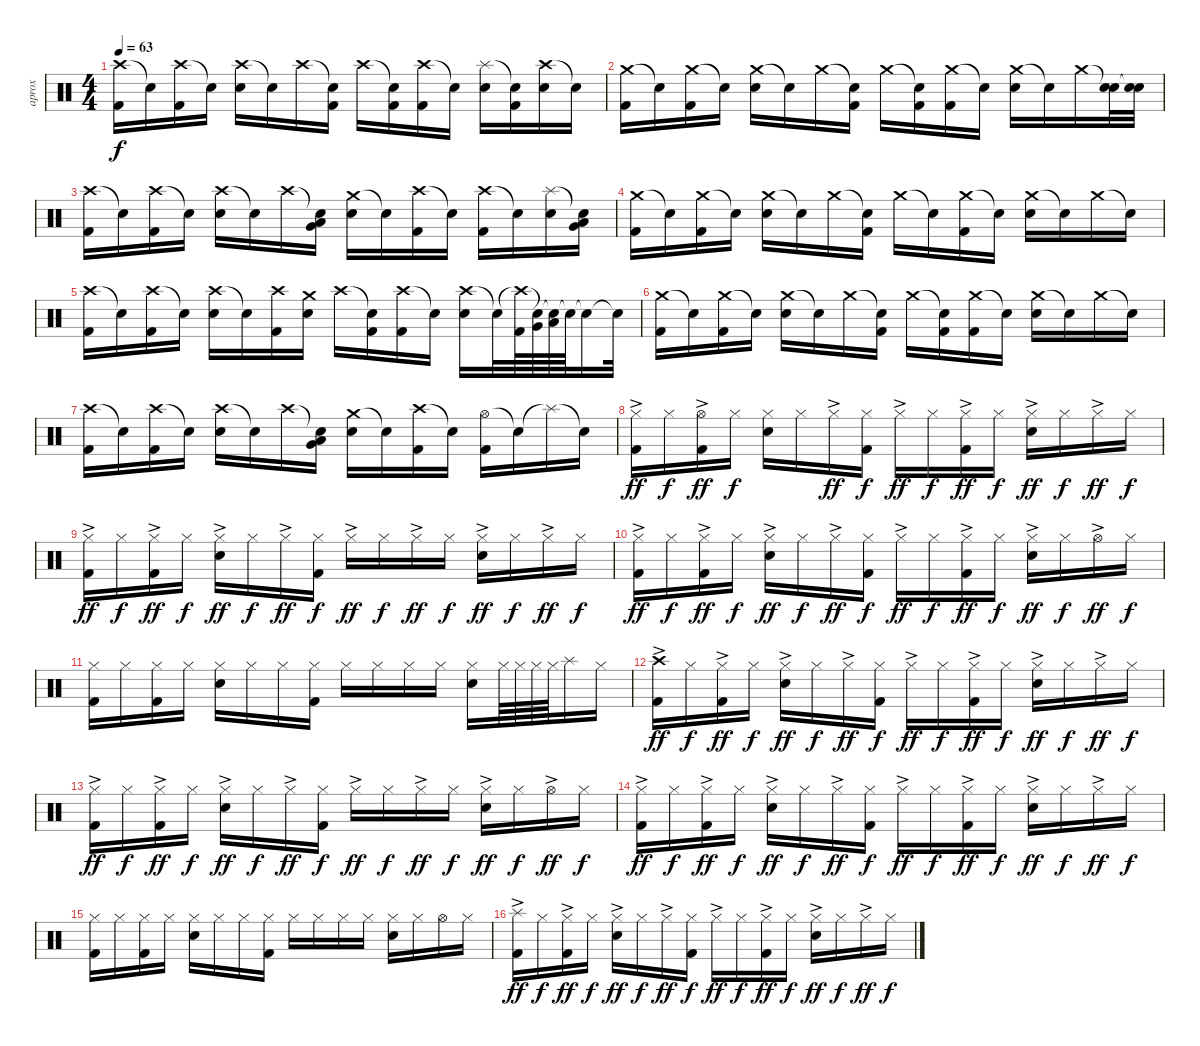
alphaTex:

\track ("aprox" "aprox") {instrument percussion}
\staff {score}
\articulation defaults
\ts (4 4)
\tempo 63
\clef neutral
\ks c
("Crash high (hit)" "Kick (hit) 2").16{dy f} "Snare (hit)"{t}.16 ("Crash high (hit)" "Kick (hit) 2").16 "Snare (hit)"{t}.16 ("Crash high (hit)" "Electric Snare (hit)").16 "Snare (hit)"{t}.16 "Crash high (hit)".16 ("Snare (hit)"{t} "Kick (hit) 2").16 "Crash high (hit)".16 ("Snare (hit)"{t} "Kick (hit) 2").16 ("Crash high (hit)" "Kick (hit) 2").16 "Snare (hit)"{t}.16 ("Splash (hit)" "Electric Snare (hit)").16 ("Snare (hit)"{t} "Kick (hit) 2").16 ("Crash high (hit)" "Electric Snare (hit)").16 "Snare (hit)"{t}.16 |
("Crash medium (hit)" "Kick (hit) 2").16 "Snare (hit)"{t}.16 ("Crash medium (hit)" "Kick (hit) 2").16 "Snare (hit)"{t}.16 ("Crash medium (hit)" "Electric Snare (hit)").16 "Snare (hit)"{t}.16 "Crash medium (hit)".16 ("Snare (hit)"{t} "Kick (hit) 2").16 "Crash medium (hit)".16 ("Snare (hit)"{t} "Kick (hit) 2").16 ("Crash medium (hit)" "Kick (hit) 2").16 "Snare (hit)"{t}.16 ("Crash medium (hit)" "Electric Snare (hit)").16 "Snare (hit)"{t}.16 "Crash medium (hit)".16 ("Snare (hit)"{t} "Electric Snare (hit)").32 ("Snare (hit)"{t} "Electric Snare (hit)").32 |
("Crash high (hit)" "Kick (hit) 2").16 "Snare (hit)"{t}.16 ("Crash high (hit)" "Kick (hit) 2").16 "Snare (hit)"{t}.16 ("Crash high (hit)" "Electric Snare (hit)").16 "Snare (hit)"{t}.16 "Crash high (hit)".16 ("Snare (hit)"{t} "Low Floor Tom (hit)" "Very Low Tom (hit)").16 ("Crash medium (hit)" "Electric Snare (hit)").16 "Snare (hit)"{t}.16 ("Crash high (hit)" "Kick (hit) 2").16 "Snare (hit)"{t}.16 ("Crash high (hit)" "Kick (hit) 2").16 "Snare (hit)"{t}.16 ("Splash (hit)" "Electric Snare (hit)").16 ("Snare (hit)"{t} "Low Floor Tom (hit)" "Very Low Tom (hit)").16 |
("Crash medium (hit)" "Kick (hit) 2").16 "Snare (hit)"{t}.16 ("Crash medium (hit)" "Kick (hit) 2").16 "Snare (hit)"{t}.16 ("Crash medium (hit)" "Electric Snare (hit)").16 "Snare (hit)"{t}.16 "Crash medium (hit)".16 ("Snare (hit)"{t} "Kick (hit) 2").16 "Crash medium (hit)".16 "Snare (hit)"{t}.16 ("Crash medium (hit)" "Kick (hit) 2").16 "Snare (hit)"{t}.16 ("Crash medium (hit)" "Electric Snare (hit)").16 "Snare (hit)"{t}.16 "Crash medium (hit)".16 "Snare (hit)"{t}.16 |
("Crash high (hit)" "Kick (hit) 2").16 "Snare (hit)"{t}.16 ("Crash high (hit)" "Kick (hit) 2").16 "Snare (hit)"{t}.16 ("Crash high (hit)" "Electric Snare (hit)").16 "Snare (hit)"{t}.16 ("Crash high (hit)" "Kick (hit) 2").16 ("Crash medium (hit)" "Electric Snare (hit)").16 "Crash high (hit)".16 ("Snare (hit)"{t} "Kick (hit) 2").16 ("Crash high (hit)" "Kick (hit) 2").16 "Snare (hit)"{t}.16 ("Crash high (hit)" "Electric Snare (hit)").16 "Snare (hit)"{t}.32 ("Crash high (hit)"{t} "Kick (hit) 2").64 ("Snare (hit)"{t} "Very Low Tom (hit)").64 ("Snare (hit)"{t} "Low Floor Tom (hit)").64 "Snare (hit)"{t}.64 "Snare (hit)"{t}.16 "Snare (hit)"{t}.32 |
("Crash medium (hit)" "Kick (hit) 2").16 "Snare (hit)"{t}.16 ("Crash medium (hit)" "Kick (hit) 2").16 "Snare (hit)"{t}.16 ("Crash medium (hit)" "Electric Snare (hit)").16 "Snare (hit)"{t}.16 "Crash medium (hit)".16 ("Snare (hit)"{t} "Kick (hit) 2").16 "Crash medium (hit)".16 ("Snare (hit)"{t} "Kick (hit) 2").16 ("Crash medium (hit)" "Kick (hit) 2").16 "Snare (hit)"{t}.16 ("Crash medium (hit)" "Electric Snare (hit)").16 "Snare (hit)"{t}.16 "Crash medium (hit)".16 "Snare (hit)"{t}.16 |
("Crash high (hit)" "Kick (hit) 2").16 "Snare (hit)"{t}.16 ("Crash high (hit)" "Kick (hit) 2").16 "Snare (hit)"{t}.16 ("Crash high (hit)" "Electric Snare (hit)").16 "Snare (hit)"{t}.16 "Crash high (hit)".16 ("Snare (hit)"{t} "Low Floor Tom (hit)" "Very Low Tom (hit)").16 ("Crash medium (hit)" "Electric Snare (hit)").16 "Snare (hit)"{t}.16 ("Crash high (hit)" "Kick (hit) 2").16 "Snare (hit)"{t}.16 ("Hi-Hat (open)" "Kick (hit) 2").16 "Snare (hit)"{t}.16 "Splash (hit)"{t}.16 "Snare (hit)"{t}.16 |
("Hi-Hat (closed)"{ac} "Kick (hit) 2").16{dy ff} "Hi-Hat (closed)".16{dy f} ("Hi-Hat (open)"{ac} "Kick (hit) 2").16{dy ff} "Hi-Hat (closed)".16{dy f} ("Hi-Hat (closed)" "Electric Snare (hit)").16 "Hi-Hat (closed)".16 "Hi-Hat (closed)"{ac}.16{dy ff} ("Hi-Hat (closed)" "Kick (hit) 2").16{dy f} "Hi-Hat (closed)"{ac}.16{dy ff} "Hi-Hat (closed)".16{dy f} ("Hi-Hat (closed)"{ac} "Kick (hit) 2").16{dy ff} "Hi-Hat (closed)".16{dy f} ("Hi-Hat (closed)"{ac} "Electric Snare (hit)").16{dy ff} "Hi-Hat (closed)".16{dy f} "Hi-Hat (closed)"{ac}.16{dy ff} "Hi-Hat (closed)".16{dy f} |
("Hi-Hat (closed)"{ac} "Kick (hit) 2").16{dy ff} "Hi-Hat (closed)".16{dy f} ("Hi-Hat (closed)"{ac} "Kick (hit) 2").16{dy ff} "Hi-Hat (closed)".16{dy f} ("Hi-Hat (closed)"{ac} "Electric Snare (hit)").16{dy ff} "Hi-Hat (closed)".16{dy f} "Hi-Hat (closed)"{ac}.16{dy ff} ("Hi-Hat (closed)" "Kick (hit) 2").16{dy f} "Hi-Hat (closed)"{ac}.16{dy ff} "Hi-Hat (closed)".16{dy f} "Hi-Hat (closed)"{ac}.16{dy ff} "Hi-Hat (closed)".16{dy f} ("Hi-Hat (closed)"{ac} "Electric Snare (hit)").16{dy ff} "Hi-Hat (closed)".16{dy f} "Hi-Hat (closed)"{ac}.16{dy ff} "Hi-Hat (closed)".16{dy f} |
("Hi-Hat (closed)"{ac} "Kick (hit) 2").16{dy ff} "Hi-Hat (closed)".16{dy f} ("Hi-Hat (closed)"{ac} "Kick (hit) 2").16{dy ff} "Hi-Hat (closed)".16{dy f} ("Hi-Hat (closed)"{ac} "Electric Snare (hit)").16{dy ff} "Hi-Hat (closed)".16{dy f} "Hi-Hat (closed)"{ac}.16{dy ff} ("Hi-Hat (closed)" "Kick (hit) 2").16{dy f} "Hi-Hat (closed)"{ac}.16{dy ff} "Hi-Hat (closed)".16{dy f} ("Hi-Hat (closed)"{ac} "Kick (hit) 2").16{dy ff} "Hi-Hat (closed)".16{dy f} ("Hi-Hat (closed)"{ac} "Electric Snare (hit)").16{dy ff} "Hi-Hat (closed)".16{dy f} "Hi-Hat (open)"{ac}.16{dy ff} "Hi-Hat (closed)".16{dy f} |
("Hi-Hat (closed)" "Kick (hit) 2").16 "Hi-Hat (closed)".16 ("Hi-Hat (closed)" "Kick (hit) 2").16 "Hi-Hat (closed)".16 ("Hi-Hat (closed)" "Electric Snare (hit)").16 "Hi-Hat (closed)".16 "Hi-Hat (closed)".16 ("Hi-Hat (closed)" "Kick (hit) 2").16 "Hi-Hat (closed)".16 "Hi-Hat (closed)".16 "Hi-Hat (closed)".16 "Hi-Hat (closed)".16 ("Hi-Hat (closed)" "Electric Snare (hit)").16 "Hi-Hat (closed)".64 "Hi-Hat (closed)".64 "Hi-Hat (closed)".64 "Hi-Hat (closed)".64 "Splash (hit)".16 "Hi-Hat (closed)".16 |
("Crash high (hit)"{ac} "Kick (hit) 2").16{dy ff} "Hi-Hat (closed)".16{dy f} ("Hi-Hat (closed)"{ac} "Kick (hit) 2").16{dy ff} "Hi-Hat (closed)".16{dy f} ("Hi-Hat (closed)"{ac} "Electric Snare (hit)").16{dy ff} "Hi-Hat (closed)".16{dy f} "Hi-Hat (closed)"{ac}.16{dy ff} ("Hi-Hat (closed)" "Kick (hit) 2").16{dy f} "Hi-Hat (closed)"{ac}.16{dy ff} "Hi-Hat (closed)".16{dy f} ("Hi-Hat (closed)"{ac} "Kick (hit) 2").16{dy ff} "Hi-Hat (closed)".16{dy f} ("Hi-Hat (closed)"{ac} "Electric Snare (hit)").16{dy ff} "Hi-Hat (closed)".16{dy f} "Hi-Hat (closed)"{ac}.16{dy ff} "Hi-Hat (closed)".16{dy f} |
("Hi-Hat (closed)"{ac} "Kick (hit) 2").16{dy ff} "Hi-Hat (closed)".16{dy f} ("Hi-Hat (closed)"{ac} "Kick (hit) 2").16{dy ff} "Hi-Hat (closed)".16{dy f} ("Hi-Hat (closed)"{ac} "Electric Snare (hit)").16{dy ff} "Hi-Hat (closed)".16{dy f} "Hi-Hat (closed)"{ac}.16{dy ff} ("Hi-Hat (closed)" "Kick (hit) 2").16{dy f} "Hi-Hat (closed)"{ac}.16{dy ff} "Hi-Hat (closed)".16{dy f} "Hi-Hat (closed)"{ac}.16{dy ff} "Hi-Hat (closed)".16{dy f} ("Hi-Hat (closed)"{ac} "Electric Snare (hit)").16{dy ff} "Hi-Hat (closed)".16{dy f} "Hi-Hat (open)"{ac}.16{dy ff} "Hi-Hat (closed)".16{dy f} |
("Hi-Hat (closed)"{ac} "Kick (hit) 2").16{dy ff} "Hi-Hat (closed)".16{dy f} ("Hi-Hat (closed)"{ac} "Kick (hit) 2").16{dy ff} "Hi-Hat (closed)".16{dy f} ("Hi-Hat (closed)"{ac} "Electric Snare (hit)").16{dy ff} "Hi-Hat (closed)".16{dy f} "Hi-Hat (closed)"{ac}.16{dy ff} ("Hi-Hat (closed)" "Kick (hit) 2").16{dy f} "Hi-Hat (closed)"{ac}.16{dy ff} "Hi-Hat (closed)".16{dy f} ("Hi-Hat (closed)"{ac} "Kick (hit) 2").16{dy ff} "Hi-Hat (closed)".16{dy f} ("Hi-Hat (closed)"{ac} "Electric Snare (hit)").16{dy ff} "Hi-Hat (closed)".16{dy f} "Hi-Hat (closed)"{ac}.16{dy ff} "Hi-Hat (closed)".16{dy f} |
("Hi-Hat (closed)" "Kick (hit) 2").16 "Hi-Hat (closed)".16 ("Hi-Hat (closed)" "Kick (hit) 2").16 "Hi-Hat (closed)".16 ("Hi-Hat (closed)" "Electric Snare (hit)").16 "Hi-Hat (closed)".16 "Hi-Hat (closed)".16 ("Hi-Hat (closed)" "Kick (hit) 2").16 "Hi-Hat (closed)".16 "Hi-Hat (closed)".16 "Hi-Hat (closed)".16 "Hi-Hat (closed)".16 ("Hi-Hat (closed)" "Electric Snare (hit)").16 "Hi-Hat (closed)".16 "Hi-Hat (open)".16 "Hi-Hat (closed)".16 |
("Splash (hit)"{ac} "Kick (hit) 2").16{dy ff} "Hi-Hat (closed)".16{dy f} ("Hi-Hat (closed)"{ac} "Kick (hit) 2").16{dy ff} "Hi-Hat (closed)".16{dy f} ("Hi-Hat (closed)"{ac} "Electric Snare (hit)").16{dy ff} "Hi-Hat (closed)".16{dy f} "Hi-Hat (closed)"{ac}.16{dy ff} ("Hi-Hat (closed)" "Kick (hit) 2").16{dy f} "Hi-Hat (closed)"{ac}.16{dy ff} "Hi-Hat (closed)".16{dy f} ("Hi-Hat (closed)"{ac} "Kick (hit) 2").16{dy ff} "Hi-Hat (closed)".16{dy f} ("Hi-Hat (closed)"{ac} "Electric Snare (hit)").16{dy ff} "Hi-Hat (closed)".16{dy f} "Hi-Hat (closed)"{ac}.16{dy ff} "Hi-Hat (closed)".16{dy f}
